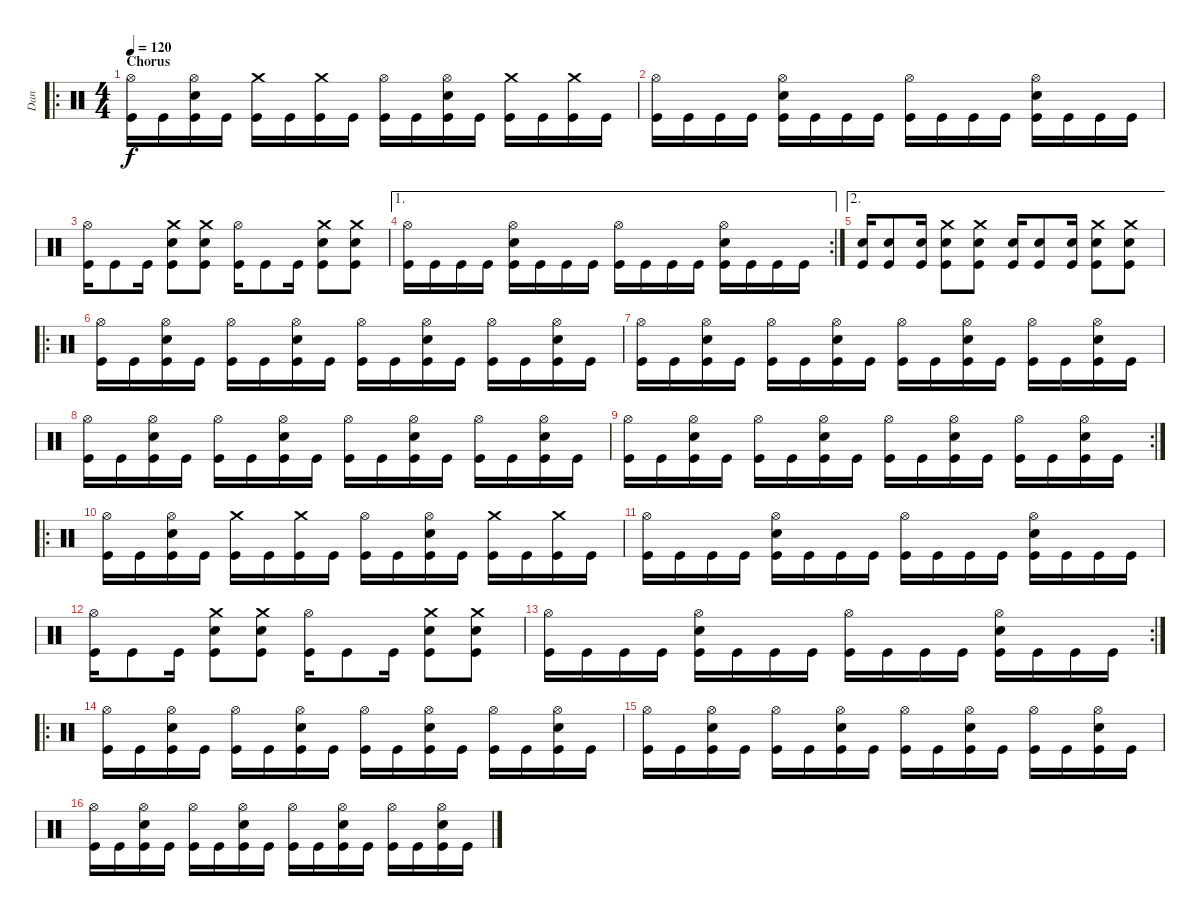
\track ("Dan" "Dan") {instrument percussion}
\staff {score}
\articulation defaults
\ro
\ts (4 4)
\section ("" "Chorus")
\tempo 120
\clef neutral
\ks c
("Hi-Hat (open)" "Kick (hit)").16{dy f} "Kick (hit)".16 ("Hi-Hat (open)" "Snare (hit) 2" "Kick (hit)").16 "Kick (hit)".16 ("Crash medium (hit)" "Kick (hit)").16 "Kick (hit)".16 ("Crash medium (hit)" "Kick (hit)").16 "Kick (hit)".16 ("Hi-Hat (open)" "Kick (hit)").16 "Kick (hit)".16 ("Hi-Hat (open)" "Snare (hit) 2" "Kick (hit)").16 "Kick (hit)".16 ("Crash medium (hit)" "Kick (hit)").16 "Kick (hit)".16 ("Crash medium (hit)" "Kick (hit)").16 "Kick (hit)".16 |
("Hi-Hat (open)" "Kick (hit)").16 "Kick (hit)".16 "Kick (hit)".16 "Kick (hit)".16 ("Hi-Hat (open)" "Snare (hit) 2" "Kick (hit)").16 "Kick (hit)".16 "Kick (hit)".16 "Kick (hit)".16 ("Hi-Hat (open)" "Kick (hit)").16 "Kick (hit)".16 "Kick (hit)".16 "Kick (hit)".16 ("Hi-Hat (open)" "Snare (hit) 2" "Kick (hit)").16 "Kick (hit)".16 "Kick (hit)".16 "Kick (hit)".16 |
("Hi-Hat (open)" "Kick (hit)").16 "Kick (hit)".8 "Kick (hit)".16 ("Crash medium (hit)" "Snare (hit) 2" "Kick (hit)").8 ("Crash medium (hit)" "Snare (hit) 2" "Kick (hit)").8 ("Hi-Hat (open)" "Kick (hit)").16 "Kick (hit)".8 "Kick (hit)".16 ("Crash medium (hit)" "Snare (hit) 2" "Kick (hit)").8 ("Crash medium (hit)" "Snare (hit) 2" "Kick (hit)").8 |
\ae 1
\rc 2
("Hi-Hat (open)" "Kick (hit)").16 "Kick (hit)".16 "Kick (hit)".16 "Kick (hit)".16 ("Hi-Hat (open)" "Snare (hit) 2" "Kick (hit)").16 "Kick (hit)".16 "Kick (hit)".16 "Kick (hit)".16 ("Hi-Hat (open)" "Kick (hit)").16 "Kick (hit)".16 "Kick (hit)".16 "Kick (hit)".16 ("Hi-Hat (open)" "Snare (hit) 2" "Kick (hit)").16 "Kick (hit)".16 "Kick (hit)".16 "Kick (hit)".16 |
\ae 2
("Snare (hit) 2" "Kick (hit)").16 ("Snare (hit) 2" "Kick (hit)").8 ("Snare (hit) 2" "Kick (hit)").16 ("Crash medium (hit)" "Snare (hit) 2" "Kick (hit)").8 ("Crash medium (hit)" "Snare (hit) 2" "Kick (hit)").8 ("Snare (hit) 2" "Kick (hit)").16 ("Snare (hit) 2" "Kick (hit)").8 ("Snare (hit) 2" "Kick (hit)").16 ("Crash medium (hit)" "Snare (hit) 2" "Kick (hit)").8 ("Crash medium (hit)" "Snare (hit) 2" "Kick (hit)").8 |
\ro
("Hi-Hat (open)" "Kick (hit)").16 "Kick (hit)".16 ("Hi-Hat (open)" "Snare (hit) 2" "Kick (hit)").16 "Kick (hit)".16 ("Hi-Hat (open)" "Kick (hit)").16 "Kick (hit)".16 ("Hi-Hat (open)" "Snare (hit) 2" "Kick (hit)").16 "Kick (hit)".16 ("Hi-Hat (open)" "Kick (hit)").16 "Kick (hit)".16 ("Hi-Hat (open)" "Snare (hit) 2" "Kick (hit)").16 "Kick (hit)".16 ("Hi-Hat (open)" "Kick (hit)").16 "Kick (hit)".16 ("Hi-Hat (open)" "Snare (hit) 2" "Kick (hit)").16 "Kick (hit)".16 |
("Hi-Hat (open)" "Kick (hit)").16 "Kick (hit)".16 ("Hi-Hat (open)" "Snare (hit) 2" "Kick (hit)").16 "Kick (hit)".16 ("Hi-Hat (open)" "Kick (hit)").16 "Kick (hit)".16 ("Hi-Hat (open)" "Snare (hit) 2" "Kick (hit)").16 "Kick (hit)".16 ("Hi-Hat (open)" "Kick (hit)").16 "Kick (hit)".16 ("Hi-Hat (open)" "Snare (hit) 2" "Kick (hit)").16 "Kick (hit)".16 ("Hi-Hat (open)" "Kick (hit)").16 "Kick (hit)".16 ("Hi-Hat (open)" "Snare (hit) 2" "Kick (hit)").16 "Kick (hit)".16 |
("Hi-Hat (open)" "Kick (hit)").16 "Kick (hit)".16 ("Hi-Hat (open)" "Snare (hit) 2" "Kick (hit)").16 "Kick (hit)".16 ("Hi-Hat (open)" "Kick (hit)").16 "Kick (hit)".16 ("Hi-Hat (open)" "Snare (hit) 2" "Kick (hit)").16 "Kick (hit)".16 ("Hi-Hat (open)" "Kick (hit)").16 "Kick (hit)".16 ("Hi-Hat (open)" "Snare (hit) 2" "Kick (hit)").16 "Kick (hit)".16 ("Hi-Hat (open)" "Kick (hit)").16 "Kick (hit)".16 ("Hi-Hat (open)" "Snare (hit) 2" "Kick (hit)").16 "Kick (hit)".16 |
\rc 2
("Hi-Hat (open)" "Kick (hit)").16 "Kick (hit)".16 ("Hi-Hat (open)" "Snare (hit) 2" "Kick (hit)").16 "Kick (hit)".16 ("Hi-Hat (open)" "Kick (hit)").16 "Kick (hit)".16 ("Hi-Hat (open)" "Snare (hit) 2" "Kick (hit)").16 "Kick (hit)".16 ("Hi-Hat (open)" "Kick (hit)").16 "Kick (hit)".16 ("Hi-Hat (open)" "Snare (hit) 2" "Kick (hit)").16 "Kick (hit)".16 ("Hi-Hat (open)" "Kick (hit)").16 "Kick (hit)".16 ("Hi-Hat (open)" "Snare (hit) 2" "Kick (hit)").16 "Kick (hit)".16 |
\ro
("Hi-Hat (open)" "Kick (hit)").16 "Kick (hit)".16 ("Hi-Hat (open)" "Snare (hit) 2" "Kick (hit)").16 "Kick (hit)".16 ("Crash medium (hit)" "Kick (hit)").16 "Kick (hit)".16 ("Crash medium (hit)" "Kick (hit)").16 "Kick (hit)".16 ("Hi-Hat (open)" "Kick (hit)").16 "Kick (hit)".16 ("Hi-Hat (open)" "Snare (hit) 2" "Kick (hit)").16 "Kick (hit)".16 ("Crash medium (hit)" "Kick (hit)").16 "Kick (hit)".16 ("Crash medium (hit)" "Kick (hit)").16 "Kick (hit)".16 |
("Hi-Hat (open)" "Kick (hit)").16 "Kick (hit)".16 "Kick (hit)".16 "Kick (hit)".16 ("Hi-Hat (open)" "Snare (hit) 2" "Kick (hit)").16 "Kick (hit)".16 "Kick (hit)".16 "Kick (hit)".16 ("Hi-Hat (open)" "Kick (hit)").16 "Kick (hit)".16 "Kick (hit)".16 "Kick (hit)".16 ("Hi-Hat (open)" "Snare (hit) 2" "Kick (hit)").16 "Kick (hit)".16 "Kick (hit)".16 "Kick (hit)".16 |
("Hi-Hat (open)" "Kick (hit)").16 "Kick (hit)".8 "Kick (hit)".16 ("Crash medium (hit)" "Snare (hit) 2" "Kick (hit)").8 ("Crash medium (hit)" "Snare (hit) 2" "Kick (hit)").8 ("Hi-Hat (open)" "Kick (hit)").16 "Kick (hit)".8 "Kick (hit)".16 ("Crash medium (hit)" "Snare (hit) 2" "Kick (hit)").8 ("Crash medium (hit)" "Snare (hit) 2" "Kick (hit)").8 |
\rc 2
("Hi-Hat (open)" "Kick (hit)").16 "Kick (hit)".16 "Kick (hit)".16 "Kick (hit)".16 ("Hi-Hat (open)" "Snare (hit) 2" "Kick (hit)").16 "Kick (hit)".16 "Kick (hit)".16 "Kick (hit)".16 ("Hi-Hat (open)" "Kick (hit)").16 "Kick (hit)".16 "Kick (hit)".16 "Kick (hit)".16 ("Hi-Hat (open)" "Snare (hit) 2" "Kick (hit)").16 "Kick (hit)".16 "Kick (hit)".16 "Kick (hit)".16 |
\ro
("Hi-Hat (open)" "Kick (hit)").16 "Kick (hit)".16 ("Hi-Hat (open)" "Snare (hit) 2" "Kick (hit)").16 "Kick (hit)".16 ("Hi-Hat (open)" "Kick (hit)").16 "Kick (hit)".16 ("Hi-Hat (open)" "Snare (hit) 2" "Kick (hit)").16 "Kick (hit)".16 ("Hi-Hat (open)" "Kick (hit)").16 "Kick (hit)".16 ("Hi-Hat (open)" "Snare (hit) 2" "Kick (hit)").16 "Kick (hit)".16 ("Hi-Hat (open)" "Kick (hit)").16 "Kick (hit)".16 ("Hi-Hat (open)" "Snare (hit) 2" "Kick (hit)").16 "Kick (hit)".16 |
("Hi-Hat (open)" "Kick (hit)").16 "Kick (hit)".16 ("Hi-Hat (open)" "Snare (hit) 2" "Kick (hit)").16 "Kick (hit)".16 ("Hi-Hat (open)" "Kick (hit)").16 "Kick (hit)".16 ("Hi-Hat (open)" "Snare (hit) 2" "Kick (hit)").16 "Kick (hit)".16 ("Hi-Hat (open)" "Kick (hit)").16 "Kick (hit)".16 ("Hi-Hat (open)" "Snare (hit) 2" "Kick (hit)").16 "Kick (hit)".16 ("Hi-Hat (open)" "Kick (hit)").16 "Kick (hit)".16 ("Hi-Hat (open)" "Snare (hit) 2" "Kick (hit)").16 "Kick (hit)".16 |
("Hi-Hat (open)" "Kick (hit)").16 "Kick (hit)".16 ("Hi-Hat (open)" "Snare (hit) 2" "Kick (hit)").16 "Kick (hit)".16 ("Hi-Hat (open)" "Kick (hit)").16 "Kick (hit)".16 ("Hi-Hat (open)" "Snare (hit) 2" "Kick (hit)").16 "Kick (hit)".16 ("Hi-Hat (open)" "Kick (hit)").16 "Kick (hit)".16 ("Hi-Hat (open)" "Snare (hit) 2" "Kick (hit)").16 "Kick (hit)".16 ("Hi-Hat (open)" "Kick (hit)").16 "Kick (hit)".16 ("Hi-Hat (open)" "Snare (hit) 2" "Kick (hit)").16 "Kick (hit)".16
